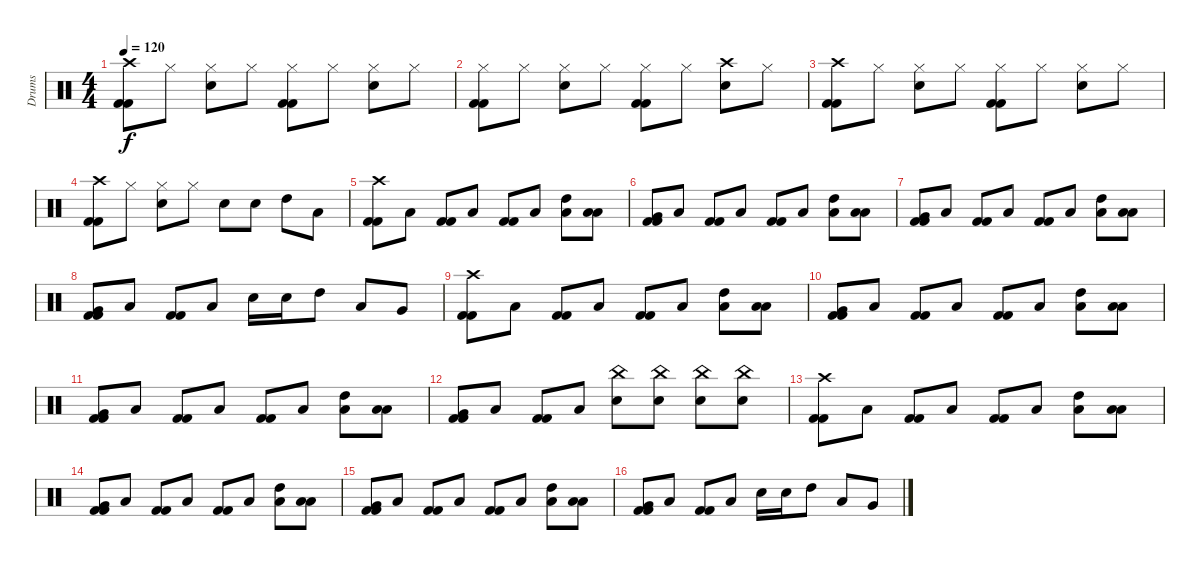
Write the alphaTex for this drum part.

\track ("Drums" "Drums") {instrument percussion}
\staff {score}
\articulation defaults
\ts (4 4)
\tempo 120
\clef neutral
\ks c
("Crash high (hit)" "Kick (hit) 2" "Kick (hit) 2").8{dy f} "Hi-Hat (closed)".8 ("Electric Snare (hit)" "Hi-Hat (closed)").8 "Hi-Hat (closed)".8 ("Kick (hit) 2" "Kick (hit) 2" "Hi-Hat (closed)").8 "Hi-Hat (closed)".8 ("Hi-Hat (closed)" "Electric Snare (hit)").8 "Hi-Hat (closed)".8 |
("Hi-Hat (closed)" "Kick (hit) 2" "Kick (hit) 2").8 "Hi-Hat (closed)".8 ("Electric Snare (hit)" "Hi-Hat (closed)").8 "Hi-Hat (closed)".8 ("Kick (hit) 2" "Kick (hit) 2" "Hi-Hat (closed)").8 "Hi-Hat (closed)".8 ("Crash high (hit)" "Electric Snare (hit)").8 "Hi-Hat (closed)".8 |
("Crash high (hit)" "Kick (hit) 2" "Kick (hit) 2").8 "Hi-Hat (closed)".8 ("Electric Snare (hit)" "Hi-Hat (closed)").8 "Hi-Hat (closed)".8 ("Kick (hit) 2" "Kick (hit) 2" "Hi-Hat (closed)").8 "Hi-Hat (closed)".8 ("Hi-Hat (closed)" "Electric Snare (hit)").8 "Hi-Hat (closed)".8 |
("Crash high (hit)" "Kick (hit) 2" "Kick (hit) 2").8 "Hi-Hat (closed)".8 ("Electric Snare (hit)" "Hi-Hat (closed)").8 "Hi-Hat (closed)".8 "Electric Snare (hit)".8 "Electric Snare (hit)".8 "High Tom (hit)".8 "Low Tom (hit)".8 |
("Crash high (hit)" "Kick (hit) 2" "Kick (hit) 2").8 "Low Tom (hit)".8 ("Kick (hit) 2" "Kick (hit) 2").8 "Low Tom (hit)".8 ("Kick (hit) 2" "Kick (hit) 2").8 "Low Tom (hit)".8 ("High Tom (hit)" "Low Floor Tom (hit)").8 ("Low Tom (hit)" "Low Floor Tom (hit)").8 |
("Very Low Tom (hit)" "Kick (hit) 2" "Kick (hit) 2").8 "Low Tom (hit)".8 ("Kick (hit) 2" "Kick (hit) 2").8 "Low Tom (hit)".8 ("Kick (hit) 2" "Kick (hit) 2").8 "Low Tom (hit)".8 ("High Tom (hit)" "Low Floor Tom (hit)").8 ("Low Tom (hit)" "Low Floor Tom (hit)").8 |
("Very Low Tom (hit)" "Kick (hit) 2" "Kick (hit) 2").8 "Low Tom (hit)".8 ("Kick (hit) 2" "Kick (hit) 2").8 "Low Tom (hit)".8 ("Kick (hit) 2" "Kick (hit) 2").8 "Low Tom (hit)".8 ("High Tom (hit)" "Low Floor Tom (hit)").8 ("Low Tom (hit)" "Low Floor Tom (hit)").8 |
("Very Low Tom (hit)" "Kick (hit) 2" "Kick (hit) 2").8 "Low Tom (hit)".8 ("Kick (hit) 2" "Kick (hit) 2").8 "Low Tom (hit)".8 "Electric Snare (hit)".16 "Electric Snare (hit)".16 "High Tom (hit)".8 "Low Tom (hit)".8 "Very Low Tom (hit)".8 |
("Crash high (hit)" "Kick (hit) 2" "Kick (hit) 2").8 "Low Tom (hit)".8 ("Kick (hit) 2" "Kick (hit) 2").8 "Low Tom (hit)".8 ("Kick (hit) 2" "Kick (hit) 2").8 "Low Tom (hit)".8 ("High Tom (hit)" "Low Floor Tom (hit)").8 ("Low Tom (hit)" "Low Floor Tom (hit)").8 |
("Very Low Tom (hit)" "Kick (hit) 2" "Kick (hit) 2").8 "Low Tom (hit)".8 ("Kick (hit) 2" "Kick (hit) 2").8 "Low Tom (hit)".8 ("Kick (hit) 2" "Kick (hit) 2").8 "Low Tom (hit)".8 ("High Tom (hit)" "Low Floor Tom (hit)").8 ("Low Tom (hit)" "Low Floor Tom (hit)").8 |
("Very Low Tom (hit)" "Kick (hit) 2" "Kick (hit) 2").8 "Low Tom (hit)".8 ("Kick (hit) 2" "Kick (hit) 2").8 "Low Tom (hit)".8 ("Kick (hit) 2" "Kick (hit) 2").8 "Low Tom (hit)".8 ("High Tom (hit)" "Low Floor Tom (hit)").8 ("Low Tom (hit)" "Low Floor Tom (hit)").8 |
("Very Low Tom (hit)" "Kick (hit) 2" "Kick (hit) 2").8 "Low Tom (hit)".8 ("Kick (hit) 2" "Kick (hit) 2").8 "Low Tom (hit)".8 ("China (hit)" "Electric Snare (hit)").8 ("Electric Snare (hit)" "China (hit)").8 ("China (hit)" "Electric Snare (hit)").8 ("Electric Snare (hit)" "China (hit)").8 |
("Crash high (hit)" "Kick (hit) 2" "Kick (hit) 2").8 "Low Tom (hit)".8 ("Kick (hit) 2" "Kick (hit) 2").8 "Low Tom (hit)".8 ("Kick (hit) 2" "Kick (hit) 2").8 "Low Tom (hit)".8 ("High Tom (hit)" "Low Floor Tom (hit)").8 ("Low Tom (hit)" "Low Floor Tom (hit)").8 |
("Very Low Tom (hit)" "Kick (hit) 2" "Kick (hit) 2").8 "Low Tom (hit)".8 ("Kick (hit) 2" "Kick (hit) 2").8 "Low Tom (hit)".8 ("Kick (hit) 2" "Kick (hit) 2").8 "Low Tom (hit)".8 ("High Tom (hit)" "Low Floor Tom (hit)").8 ("Low Tom (hit)" "Low Floor Tom (hit)").8 |
("Very Low Tom (hit)" "Kick (hit) 2" "Kick (hit) 2").8 "Low Tom (hit)".8 ("Kick (hit) 2" "Kick (hit) 2").8 "Low Tom (hit)".8 ("Kick (hit) 2" "Kick (hit) 2").8 "Low Tom (hit)".8 ("High Tom (hit)" "Low Floor Tom (hit)").8 ("Low Tom (hit)" "Low Floor Tom (hit)").8 |
("Very Low Tom (hit)" "Kick (hit) 2" "Kick (hit) 2").8 "Low Tom (hit)".8 ("Kick (hit) 2" "Kick (hit) 2").8 "Low Tom (hit)".8 "Electric Snare (hit)".16 "Electric Snare (hit)".16 "High Tom (hit)".8 "Low Tom (hit)".8 "Very Low Tom (hit)".8
